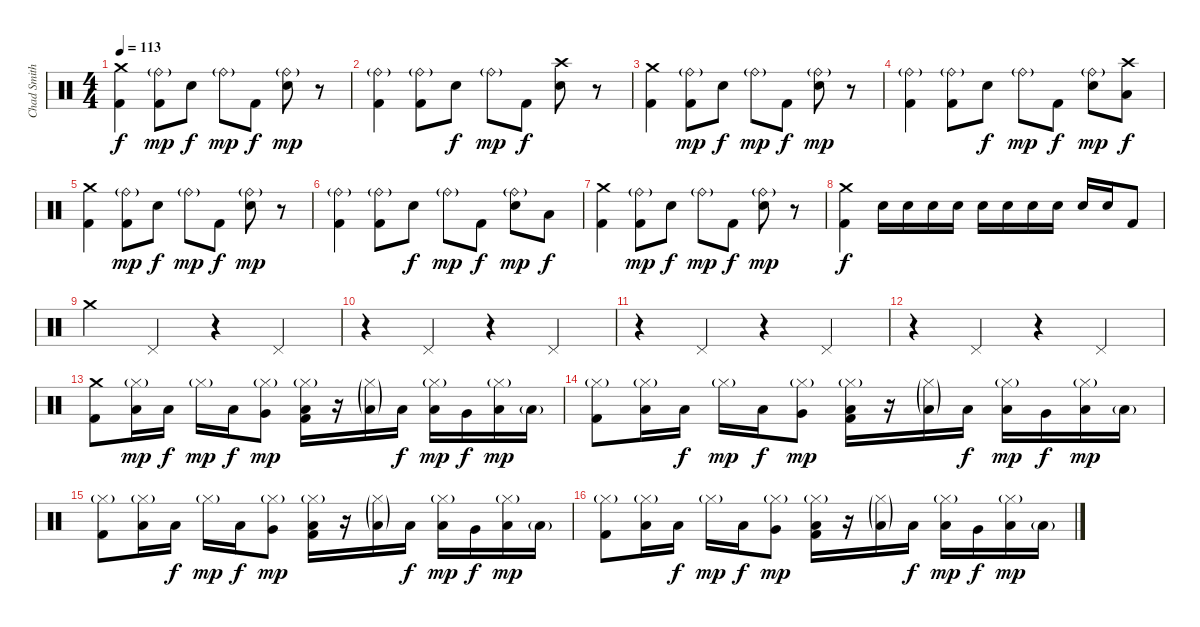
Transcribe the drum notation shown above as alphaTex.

\track ("Chad Smith" "Chad Smith") {instrument percussion}
\staff {score}
\articulation defaults
\ts (4 4)
\tempo 113
\clef neutral
\ks c
("Crash medium (hit)" "Kick (hit) 2").4{dy f} ("Ride (bell)"{g} "Kick (hit) 2").8{dy mp} "Snare (hit) 2".8{dy f} "Ride (bell)"{g}.8{dy mp} "Kick (hit) 2".8{dy f} ("Ride (bell)"{g} "Snare (hit) 2").8{dy mp} r.8 |
("Ride (bell)"{g} "Kick (hit) 2").4 ("Ride (bell)"{g} "Kick (hit) 2").8 "Snare (hit) 2".8{dy f} "Ride (bell)"{g}.8{dy mp} "Kick (hit) 2".8{dy f} ("Crash high (hit)" "Snare (hit) 2").8 r.8 |
("Crash medium (hit)" "Kick (hit) 2").4 ("Ride (bell)"{g} "Kick (hit) 2").8{dy mp} "Snare (hit) 2".8{dy f} "Ride (bell)"{g}.8{dy mp} "Kick (hit) 2".8{dy f} ("Ride (bell)"{g} "Snare (hit) 2").8{dy mp} r.8 |
("Ride (bell)"{g} "Kick (hit) 2").4 ("Ride (bell)"{g} "Kick (hit) 2").8 "Snare (hit) 2".8{dy f} "Ride (bell)"{g}.8{dy mp} "Kick (hit) 2".8{dy f} ("Ride (bell)"{g} "Snare (hit) 2").8{dy mp} ("Crash high (hit)" "Low Floor Tom (hit)").8{dy f} |
("Crash medium (hit)" "Kick (hit) 2").4 ("Ride (bell)"{g} "Kick (hit) 2").8{dy mp} "Snare (hit) 2".8{dy f} "Ride (bell)"{g}.8{dy mp} "Kick (hit) 2".8{dy f} ("Ride (bell)"{g} "Snare (hit) 2").8{dy mp} r.8 |
("Ride (bell)"{g} "Kick (hit) 2").4 ("Ride (bell)"{g} "Kick (hit) 2").8 "Snare (hit) 2".8{dy f} "Ride (bell)"{g}.8{dy mp} "Kick (hit) 2".8{dy f} ("Ride (bell)"{g} "Snare (hit) 2").8{dy mp} "Low Floor Tom (hit)".8{dy f} |
("Crash medium (hit)" "Kick (hit) 2").4 ("Ride (bell)"{g} "Kick (hit) 2").8{dy mp} "Snare (hit) 2".8{dy f} "Ride (bell)"{g}.8{dy mp} "Kick (hit) 2".8{dy f} ("Ride (bell)"{g} "Snare (hit) 2").8{dy mp} r.8 |
("Crash medium (hit)" "Kick (hit) 2").4{dy f} "Electric Snare (hit)".16 "Electric Snare (hit)".16 "Electric Snare (hit)".16 "Electric Snare (hit)".16 "Electric Snare (hit)".16 "Electric Snare (hit)".16 "Electric Snare (hit)".16 "Electric Snare (hit)".16 "Electric Snare (hit)".16 "Electric Snare (hit)".16 "Kick (hit) 2".8 |
"Crash medium (hit)".4 "Pedal Hi-Hat (hit)".4 r.4 "Pedal Hi-Hat (hit)".4 |
r.4 "Pedal Hi-Hat (hit)".4 r.4 "Pedal Hi-Hat (hit)".4 |
r.4 "Pedal Hi-Hat (hit)".4 r.4 "Pedal Hi-Hat (hit)".4 |
r.4 "Pedal Hi-Hat (hit)".4 r.4 "Pedal Hi-Hat (hit)".4 |
("Crash medium (hit)" "Kick (hit) 2").8 ("Hi-Hat (closed)"{g} "Low Tom (hit)").16{dy mp} "Low Tom (hit)".16{dy f} "Hi-Hat (closed)"{g}.16{dy mp} "Low Tom (hit)".16{dy f} ("Hi-Hat (closed)"{g} "Very Low Tom (hit)").8{dy mp} ("Hi-Hat (closed)"{g} "Low Tom (hit)" "Kick (hit) 2").16 r.16 ("Hi-Hat (closed)"{g} "Low Tom (hit)"{g}).16 "Low Tom (hit)".16{dy f} ("Hi-Hat (closed)"{g} "Low Tom (hit)").16{dy mp} "Very Low Tom (hit)".16{dy f} ("Hi-Hat (closed)"{g} "Low Floor Tom (hit)").16{dy mp} "Low Floor Tom (hit)"{g}.16 |
("Hi-Hat (closed)"{g} "Kick (hit) 2").8 ("Hi-Hat (closed)"{g} "Low Tom (hit)").16 "Low Tom (hit)".16{dy f} "Hi-Hat (closed)"{g}.16{dy mp} "Low Tom (hit)".16{dy f} ("Hi-Hat (closed)"{g} "Very Low Tom (hit)").8{dy mp} ("Hi-Hat (closed)"{g} "Low Tom (hit)" "Kick (hit) 2").16 r.16 ("Hi-Hat (closed)"{g} "Low Tom (hit)"{g}).16 "Low Tom (hit)".16{dy f} ("Hi-Hat (closed)"{g} "Low Tom (hit)").16{dy mp} "Very Low Tom (hit)".16{dy f} ("Hi-Hat (closed)"{g} "Low Floor Tom (hit)").16{dy mp} "Low Floor Tom (hit)"{g}.16 |
("Hi-Hat (closed)"{g} "Kick (hit) 2").8 ("Hi-Hat (closed)"{g} "Low Tom (hit)").16 "Low Tom (hit)".16{dy f} "Hi-Hat (closed)"{g}.16{dy mp} "Low Tom (hit)".16{dy f} ("Hi-Hat (closed)"{g} "Very Low Tom (hit)").8{dy mp} ("Hi-Hat (closed)"{g} "Low Tom (hit)" "Kick (hit) 2").16 r.16 ("Hi-Hat (closed)"{g} "Low Tom (hit)"{g}).16 "Low Tom (hit)".16{dy f} ("Hi-Hat (closed)"{g} "Low Tom (hit)").16{dy mp} "Very Low Tom (hit)".16{dy f} ("Hi-Hat (closed)"{g} "Low Floor Tom (hit)").16{dy mp} "Low Floor Tom (hit)"{g}.16 |
("Hi-Hat (closed)"{g} "Kick (hit) 2").8 ("Hi-Hat (closed)"{g} "Low Tom (hit)").16 "Low Tom (hit)".16{dy f} "Hi-Hat (closed)"{g}.16{dy mp} "Low Tom (hit)".16{dy f} ("Hi-Hat (closed)"{g} "Very Low Tom (hit)").8{dy mp} ("Hi-Hat (closed)"{g} "Low Tom (hit)" "Kick (hit) 2").16 r.16 ("Hi-Hat (closed)"{g} "Low Tom (hit)"{g}).16 "Low Tom (hit)".16{dy f} ("Hi-Hat (closed)"{g} "Low Tom (hit)").16{dy mp} "Very Low Tom (hit)".16{dy f} ("Hi-Hat (closed)"{g} "Low Floor Tom (hit)").16{dy mp} "Low Floor Tom (hit)"{g}.16
